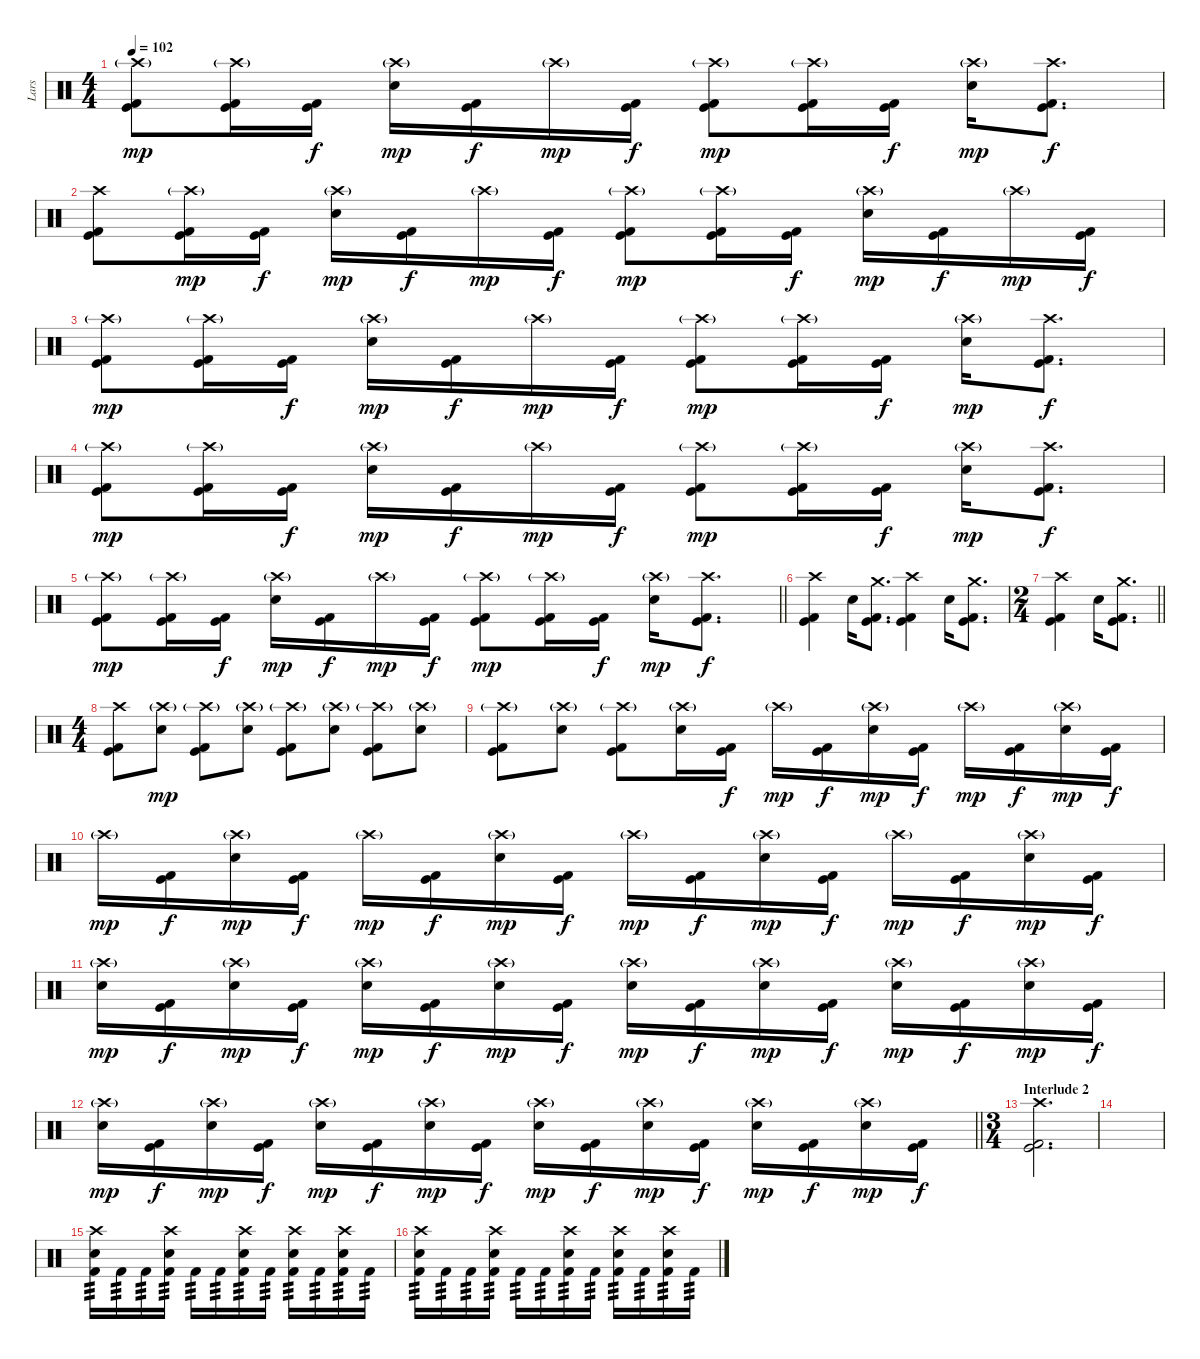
\track ("Lars" "Lars") {instrument percussion}
\staff {score}
\articulation defaults
\ts (4 4)
\tempo 102
\clef neutral
\ks c
("Crash high (hit)"{g} "Kick (hit)" "Kick (hit) 2").8{dy mp} ("Crash high (hit)"{g} "Kick (hit)" "Kick (hit) 2").16 ("Kick (hit)" "Kick (hit) 2").16{dy f} ("Crash high (hit)"{g} "Electric Snare (hit)").16{dy mp} ("Kick (hit)" "Kick (hit) 2").16{dy f} "Crash high (hit)"{g}.16{dy mp} ("Kick (hit)" "Kick (hit) 2").16{dy f} ("Crash high (hit)"{g} "Kick (hit)" "Kick (hit) 2").8{dy mp} ("Crash high (hit)"{g} "Kick (hit)" "Kick (hit) 2").16 ("Kick (hit)" "Kick (hit) 2").16{dy f} ("Crash high (hit)"{g} "Electric Snare (hit)").16{dy mp} ("Crash high (hit)" "Kick (hit)" "Kick (hit) 2").8{d dy f} |
("Crash high (hit)" "Kick (hit)" "Kick (hit) 2").8 ("Crash high (hit)"{g} "Kick (hit)" "Kick (hit) 2").16{dy mp} ("Kick (hit)" "Kick (hit) 2").16{dy f} ("Crash high (hit)"{g} "Electric Snare (hit)").16{dy mp} ("Kick (hit)" "Kick (hit) 2").16{dy f} "Crash high (hit)"{g}.16{dy mp} ("Kick (hit)" "Kick (hit) 2").16{dy f} ("Crash high (hit)"{g} "Kick (hit)" "Kick (hit) 2").8{dy mp} ("Crash high (hit)"{g} "Kick (hit)" "Kick (hit) 2").16 ("Kick (hit)" "Kick (hit) 2").16{dy f} ("Crash high (hit)"{g} "Electric Snare (hit)").16{dy mp} ("Kick (hit)" "Kick (hit) 2").16{dy f} "Crash high (hit)"{g}.16{dy mp} ("Kick (hit)" "Kick (hit) 2").16{dy f} |
("Crash high (hit)"{g} "Kick (hit)" "Kick (hit) 2").8{dy mp} ("Crash high (hit)"{g} "Kick (hit)" "Kick (hit) 2").16 ("Kick (hit)" "Kick (hit) 2").16{dy f} ("Crash high (hit)"{g} "Electric Snare (hit)").16{dy mp} ("Kick (hit)" "Kick (hit) 2").16{dy f} "Crash high (hit)"{g}.16{dy mp} ("Kick (hit)" "Kick (hit) 2").16{dy f} ("Crash high (hit)"{g} "Kick (hit)" "Kick (hit) 2").8{dy mp} ("Crash high (hit)"{g} "Kick (hit)" "Kick (hit) 2").16 ("Kick (hit)" "Kick (hit) 2").16{dy f} ("Crash high (hit)"{g} "Electric Snare (hit)").16{dy mp} ("Crash high (hit)" "Kick (hit)" "Kick (hit) 2").8{d dy f} |
("Crash high (hit)"{g} "Kick (hit)" "Kick (hit) 2").8{dy mp} ("Crash high (hit)"{g} "Kick (hit)" "Kick (hit) 2").16 ("Kick (hit)" "Kick (hit) 2").16{dy f} ("Crash high (hit)"{g} "Electric Snare (hit)").16{dy mp} ("Kick (hit)" "Kick (hit) 2").16{dy f} "Crash high (hit)"{g}.16{dy mp} ("Kick (hit)" "Kick (hit) 2").16{dy f} ("Crash high (hit)"{g} "Kick (hit)" "Kick (hit) 2").8{dy mp} ("Crash high (hit)"{g} "Kick (hit)" "Kick (hit) 2").16 ("Kick (hit)" "Kick (hit) 2").16{dy f} ("Crash high (hit)"{g} "Electric Snare (hit)").16{dy mp} ("Crash high (hit)" "Kick (hit)" "Kick (hit) 2").8{d dy f} |
\barLineRight lightlight
("Crash high (hit)"{g} "Kick (hit)" "Kick (hit) 2").8{dy mp} ("Crash high (hit)"{g} "Kick (hit)" "Kick (hit) 2").16 ("Kick (hit)" "Kick (hit) 2").16{dy f} ("Crash high (hit)"{g} "Electric Snare (hit)").16{dy mp} ("Kick (hit)" "Kick (hit) 2").16{dy f} "Crash high (hit)"{g}.16{dy mp} ("Kick (hit)" "Kick (hit) 2").16{dy f} ("Crash high (hit)"{g} "Kick (hit)" "Kick (hit) 2").8{dy mp} ("Crash high (hit)"{g} "Kick (hit)" "Kick (hit) 2").16 ("Kick (hit)" "Kick (hit) 2").16{dy f} ("Crash high (hit)"{g} "Electric Snare (hit)").16{dy mp} ("Crash high (hit)" "Kick (hit)" "Kick (hit) 2").8{d dy f} |
\section ("" "")
("Crash high (hit)" "Kick (hit)" "Kick (hit) 2").4 "Electric Snare (hit)".16 ("Crash medium (hit)" "Kick (hit)" "Kick (hit) 2").8{d} ("Crash high (hit)" "Kick (hit)" "Kick (hit) 2").4 "Electric Snare (hit)".16 ("Crash medium (hit)" "Kick (hit)" "Kick (hit) 2").8{d} |
\ts (2 4)
\barLineRight lightlight
("Crash high (hit)" "Kick (hit)" "Kick (hit) 2").4 "Electric Snare (hit)".16 ("Crash medium (hit)" "Kick (hit)" "Kick (hit) 2").8{d} |
\ts (4 4)
\section ("" "")
("Crash high (hit)" "Kick (hit)" "Kick (hit) 2").8 ("Crash high (hit)"{g} "Electric Snare (hit)").8{dy mp} ("Crash high (hit)"{g} "Kick (hit)" "Kick (hit) 2").8 ("Crash high (hit)"{g} "Electric Snare (hit)").8 ("Crash high (hit)"{g} "Kick (hit)" "Kick (hit) 2").8 ("Crash high (hit)"{g} "Electric Snare (hit)").8 ("Crash high (hit)"{g} "Kick (hit)" "Kick (hit) 2").8 ("Crash high (hit)"{g} "Electric Snare (hit)").8 |
("Crash high (hit)"{g} "Kick (hit)" "Kick (hit) 2").8 ("Crash high (hit)"{g} "Electric Snare (hit)").8 ("Crash high (hit)"{g} "Kick (hit)" "Kick (hit) 2").8 ("Crash high (hit)"{g} "Electric Snare (hit)").16 ("Kick (hit)" "Kick (hit) 2").16{dy f} "Crash high (hit)"{g}.16{dy mp} ("Kick (hit)" "Kick (hit) 2").16{dy f} ("Crash high (hit)"{g} "Electric Snare (hit)").16{dy mp} ("Kick (hit)" "Kick (hit) 2").16{dy f} "Crash high (hit)"{g}.16{dy mp} ("Kick (hit)" "Kick (hit) 2").16{dy f} ("Crash high (hit)"{g} "Electric Snare (hit)").16{dy mp} ("Kick (hit)" "Kick (hit) 2").16{dy f} |
"Crash high (hit)"{g}.16{dy mp} ("Kick (hit)" "Kick (hit) 2").16{dy f} ("Crash high (hit)"{g} "Electric Snare (hit)").16{dy mp} ("Kick (hit)" "Kick (hit) 2").16{dy f} "Crash high (hit)"{g}.16{dy mp} ("Kick (hit)" "Kick (hit) 2").16{dy f} ("Crash high (hit)"{g} "Electric Snare (hit)").16{dy mp} ("Kick (hit)" "Kick (hit) 2").16{dy f} "Crash high (hit)"{g}.16{dy mp} ("Kick (hit)" "Kick (hit) 2").16{dy f} ("Crash high (hit)"{g} "Electric Snare (hit)").16{dy mp} ("Kick (hit)" "Kick (hit) 2").16{dy f} "Crash high (hit)"{g}.16{dy mp} ("Kick (hit)" "Kick (hit) 2").16{dy f} ("Crash high (hit)"{g} "Electric Snare (hit)").16{dy mp} ("Kick (hit)" "Kick (hit) 2").16{dy f} |
("Crash high (hit)"{g} "Electric Snare (hit)").16{dy mp} ("Kick (hit)" "Kick (hit) 2").16{dy f} ("Crash high (hit)"{g} "Electric Snare (hit)").16{dy mp} ("Kick (hit)" "Kick (hit) 2").16{dy f} ("Crash high (hit)"{g} "Electric Snare (hit)").16{dy mp} ("Kick (hit)" "Kick (hit) 2").16{dy f} ("Crash high (hit)"{g} "Electric Snare (hit)").16{dy mp} ("Kick (hit)" "Kick (hit) 2").16{dy f} ("Crash high (hit)"{g} "Electric Snare (hit)").16{dy mp} ("Kick (hit)" "Kick (hit) 2").16{dy f} ("Crash high (hit)"{g} "Electric Snare (hit)").16{dy mp} ("Kick (hit)" "Kick (hit) 2").16{dy f} ("Crash high (hit)"{g} "Electric Snare (hit)").16{dy mp} ("Kick (hit)" "Kick (hit) 2").16{dy f} ("Crash high (hit)"{g} "Electric Snare (hit)").16{dy mp} ("Kick (hit)" "Kick (hit) 2").16{dy f} |
\barLineRight lightlight
("Crash high (hit)"{g} "Electric Snare (hit)").16{dy mp} ("Kick (hit)" "Kick (hit) 2").16{dy f} ("Crash high (hit)"{g} "Electric Snare (hit)").16{dy mp} ("Kick (hit)" "Kick (hit) 2").16{dy f} ("Crash high (hit)"{g} "Electric Snare (hit)").16{dy mp} ("Kick (hit)" "Kick (hit) 2").16{dy f} ("Crash high (hit)"{g} "Electric Snare (hit)").16{dy mp} ("Kick (hit)" "Kick (hit) 2").16{dy f} ("Crash high (hit)"{g} "Electric Snare (hit)").16{dy mp} ("Kick (hit)" "Kick (hit) 2").16{dy f} ("Crash high (hit)"{g} "Electric Snare (hit)").16{dy mp} ("Kick (hit)" "Kick (hit) 2").16{dy f} ("Crash high (hit)"{g} "Electric Snare (hit)").16{dy mp} ("Kick (hit)" "Kick (hit) 2").16{dy f} ("Crash high (hit)"{g} "Electric Snare (hit)").16{dy mp} ("Kick (hit)" "Kick (hit) 2").16{dy f} |
\ts (3 4)
\section ("" "Interlude 2")
("Crash high (hit)" "Kick (hit)" "Kick (hit) 2").2{d} |
|
("Crash high (hit)" "Electric Snare (hit)" "Kick (hit) 2").16{tp 3} "Kick (hit) 2".16{tp 3} "Kick (hit) 2".16{tp 3} ("Crash high (hit)" "Electric Snare (hit)" "Kick (hit) 2").16{tp 3} "Kick (hit) 2".16{tp 3} "Kick (hit) 2".16{tp 3} ("Crash high (hit)" "Electric Snare (hit)" "Kick (hit) 2").16{tp 3} "Kick (hit) 2".16{tp 3} ("Crash high (hit)" "Electric Snare (hit)" "Kick (hit) 2").16{tp 3} "Kick (hit) 2".16{tp 3} ("Crash high (hit)" "Electric Snare (hit)" "Kick (hit) 2").16{tp 3} "Kick (hit) 2".16{tp 3} |
("Crash high (hit)" "Electric Snare (hit)" "Kick (hit) 2").16{tp 3} "Kick (hit) 2".16{tp 3} "Kick (hit) 2".16{tp 3} ("Crash high (hit)" "Electric Snare (hit)" "Kick (hit) 2").16{tp 3} "Kick (hit) 2".16{tp 3} "Kick (hit) 2".16{tp 3} ("Crash high (hit)" "Electric Snare (hit)" "Kick (hit) 2").16{tp 3} "Kick (hit) 2".16{tp 3} ("Crash high (hit)" "Electric Snare (hit)" "Kick (hit) 2").16{tp 3} "Kick (hit) 2".16{tp 3} ("Crash high (hit)" "Electric Snare (hit)" "Kick (hit) 2").16{tp 3} "Kick (hit) 2".16{tp 3}
